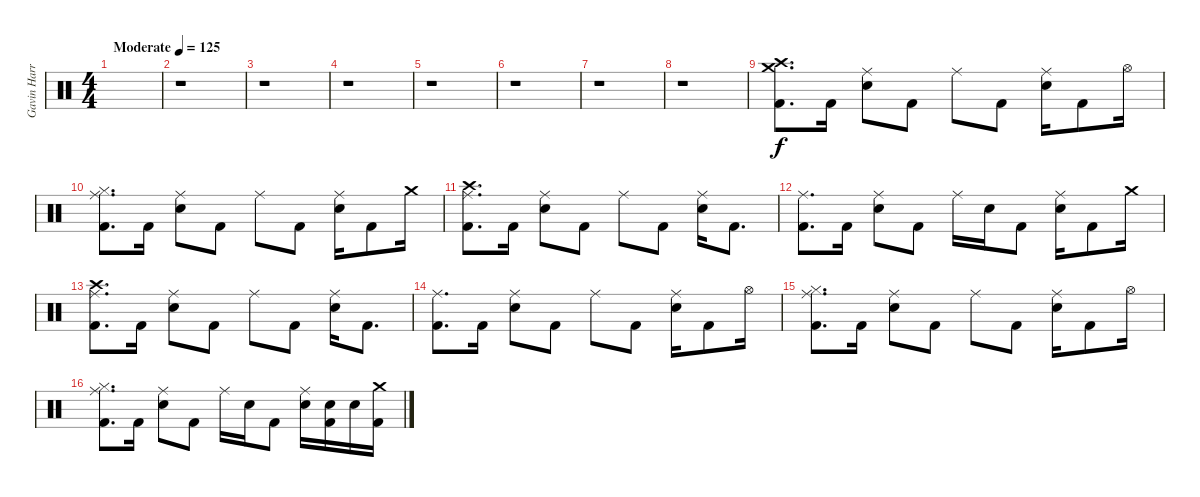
\track ("Gavin Harrison" "Gavin Harr") {instrument percussion}
\staff {score}
\articulation defaults
\ts (4 4)
\tempo (125 "Moderate")
\clef neutral
\ks c
|
r.1 |
r.1 |
r.1 |
r.1 |
r.1 |
r.1 |
r.1 |
("Crash high (hit)" "Crash medium (hit)" "Kick (hit) 2").8{d} "Kick (hit) 2".16 ("Ride (middle)" "Electric Snare (hit)").8 "Kick (hit) 2".8 "Ride (middle)".8 "Kick (hit) 2".8 ("Ride (middle)" "Electric Snare (hit)").16 "Kick (hit) 2".8 "Hi-Hat (open)".16 |
("Ride (middle)" "Hi-Hat (closed)" "Kick (hit) 2").8{d} "Kick (hit) 2".16 ("Ride (middle)" "Electric Snare (hit)").8 "Kick (hit) 2".8 "Ride (middle)".8 "Kick (hit) 2".8 ("Ride (middle)" "Electric Snare (hit)").16 "Kick (hit) 2".8 "Crash medium (hit)".16 |
("Ride (middle)" "Crash high (hit)" "Kick (hit) 2").8{d} "Kick (hit) 2".16 ("Ride (middle)" "Electric Snare (hit)").8 "Kick (hit) 2".8 "Ride (middle)".8 "Kick (hit) 2".8 ("Ride (middle)" "Electric Snare (hit)").16 "Kick (hit) 2".8{d} |
("Ride (middle)" "Kick (hit) 2").8{d} "Kick (hit) 2".16 ("Ride (middle)" "Electric Snare (hit)").8 "Kick (hit) 2".8 "Ride (middle)".16 "Electric Snare (hit)".16 "Kick (hit) 2".8 ("Ride (middle)" "Electric Snare (hit)").16 "Kick (hit) 2".8 "Crash medium (hit)".16 |
("Ride (middle)" "Crash high (hit)" "Kick (hit) 2").8{d} "Kick (hit) 2".16 ("Ride (middle)" "Electric Snare (hit)").8 "Kick (hit) 2".8 "Ride (middle)".8 "Kick (hit) 2".8 ("Ride (middle)" "Electric Snare (hit)").16 "Kick (hit) 2".8{d} |
("Ride (middle)" "Kick (hit) 2").8{d} "Kick (hit) 2".16 ("Ride (middle)" "Electric Snare (hit)").8 "Kick (hit) 2".8 "Ride (middle)".8 "Kick (hit) 2".8 ("Ride (middle)" "Electric Snare (hit)").16 "Kick (hit) 2".8 "Hi-Hat (open)".16 |
("Ride (middle)" "Hi-Hat (closed)" "Kick (hit) 2").8{d} "Kick (hit) 2".16 ("Ride (middle)" "Electric Snare (hit)").8 "Kick (hit) 2".8 "Ride (middle)".8 "Kick (hit) 2".8 ("Ride (middle)" "Electric Snare (hit)").16 "Kick (hit) 2".8 "Hi-Hat (open)".16 |
("Ride (middle)" "Hi-Hat (closed)" "Kick (hit) 2").8{d} "Kick (hit) 2".16 ("Ride (middle)" "Electric Snare (hit)").8 "Kick (hit) 2".8 "Ride (middle)".16 "Electric Snare (hit)".16 "Kick (hit) 2".8 ("Ride (middle)" "Electric Snare (hit)").16 ("Electric Snare (hit)" "Kick (hit) 2").16 "Electric Snare (hit)".16 ("Crash medium (hit)" "Kick (hit) 2").16
